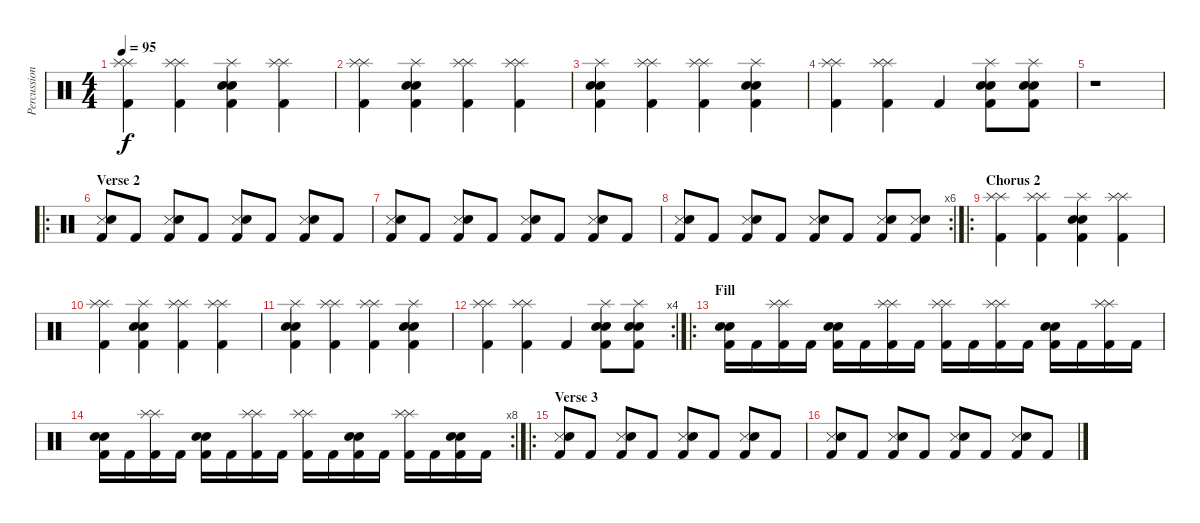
\track ("Percussion" "Percussion") {instrument percussion}
\staff {score}
\articulation defaults
\ts (4 4)
\tempo 95
\clef neutral
\ks c
("Splash (hit)" "Splash (hit)" "Kick (hit) 2").4{dy f} ("Splash (hit)" "Splash (hit)" "Kick (hit) 2").4 ("Splash (hit)" "Electric Snare (hit)" "Electric Snare (hit)" "Kick (hit) 2").4 ("Splash (hit)" "Splash (hit)" "Kick (hit) 2").4 |
("Splash (hit)" "Splash (hit)" "Kick (hit) 2").4 ("Splash (hit)" "Electric Snare (hit)" "Electric Snare (hit)" "Kick (hit) 2").4 ("Splash (hit)" "Splash (hit)" "Kick (hit) 2").4 ("Splash (hit)" "Splash (hit)" "Kick (hit) 2").4 |
("Splash (hit)" "Electric Snare (hit)" "Electric Snare (hit)" "Kick (hit) 2").4 ("Splash (hit)" "Splash (hit)" "Kick (hit) 2").4 ("Splash (hit)" "Splash (hit)" "Kick (hit) 2").4 ("Splash (hit)" "Electric Snare (hit)" "Electric Snare (hit)" "Kick (hit) 2").4 |
("Splash (hit)" "Splash (hit)" "Kick (hit) 2").4 ("Splash (hit)" "Splash (hit)" "Kick (hit) 2").4 "Kick (hit) 2".4 ("Splash (hit)" "Electric Snare (hit)" "Electric Snare (hit)" "Kick (hit) 2").8 ("Splash (hit)" "Electric Snare (hit)" "Electric Snare (hit)" "Kick (hit) 2").8 |
r.1 |
\ro
\section ("" "Verse 2")
("Metronome (hit)" "Electric Snare (hit)" "Kick (hit) 2").8 "Kick (hit) 2".8 ("Metronome (hit)" "Electric Snare (hit)" "Kick (hit) 2").8 "Kick (hit) 2".8 ("Metronome (hit)" "Electric Snare (hit)" "Kick (hit) 2").8 "Kick (hit) 2".8 ("Metronome (hit)" "Electric Snare (hit)" "Kick (hit) 2").8 "Kick (hit) 2".8 |
("Metronome (hit)" "Electric Snare (hit)" "Kick (hit) 2").8 "Kick (hit) 2".8 ("Metronome (hit)" "Electric Snare (hit)" "Kick (hit) 2").8 "Kick (hit) 2".8 ("Metronome (hit)" "Electric Snare (hit)" "Kick (hit) 2").8 "Kick (hit) 2".8 ("Metronome (hit)" "Electric Snare (hit)" "Kick (hit) 2").8 "Kick (hit) 2".8 |
\rc 6
("Metronome (hit)" "Electric Snare (hit)" "Kick (hit) 2").8 "Kick (hit) 2".8 ("Metronome (hit)" "Electric Snare (hit)" "Kick (hit) 2").8 "Kick (hit) 2".8 ("Metronome (hit)" "Electric Snare (hit)" "Kick (hit) 2").8 "Kick (hit) 2".8 ("Metronome (hit)" "Electric Snare (hit)" "Kick (hit) 2").8 ("Metronome (hit)" "Electric Snare (hit)" "Kick (hit) 2").8 |
\ro
\section ("" "Chorus 2")
("Splash (hit)" "Splash (hit)" "Kick (hit) 2").4 ("Splash (hit)" "Splash (hit)" "Kick (hit) 2").4 ("Splash (hit)" "Electric Snare (hit)" "Electric Snare (hit)" "Kick (hit) 2").4 ("Splash (hit)" "Splash (hit)" "Kick (hit) 2").4 |
("Splash (hit)" "Splash (hit)" "Kick (hit) 2").4 ("Splash (hit)" "Electric Snare (hit)" "Electric Snare (hit)" "Kick (hit) 2").4 ("Splash (hit)" "Splash (hit)" "Kick (hit) 2").4 ("Splash (hit)" "Splash (hit)" "Kick (hit) 2").4 |
("Splash (hit)" "Electric Snare (hit)" "Electric Snare (hit)" "Kick (hit) 2").4 ("Splash (hit)" "Splash (hit)" "Kick (hit) 2").4 ("Splash (hit)" "Splash (hit)" "Kick (hit) 2").4 ("Splash (hit)" "Electric Snare (hit)" "Electric Snare (hit)" "Kick (hit) 2").4 |
\rc 4
("Splash (hit)" "Splash (hit)" "Kick (hit) 2").4 ("Splash (hit)" "Splash (hit)" "Kick (hit) 2").4 "Kick (hit) 2".4 ("Splash (hit)" "Electric Snare (hit)" "Electric Snare (hit)" "Kick (hit) 2").8 ("Splash (hit)" "Electric Snare (hit)" "Electric Snare (hit)" "Kick (hit) 2").8 |
\ro
\section ("" "Fill")
("Electric Snare (hit)" "Electric Snare (hit)" "Kick (hit) 2").16 "Kick (hit) 2".16 ("Splash (hit)" "Splash (hit)" "Kick (hit) 2").16 "Kick (hit) 2".16 ("Electric Snare (hit)" "Electric Snare (hit)" "Kick (hit) 2").16 "Kick (hit) 2".16 ("Splash (hit)" "Splash (hit)" "Kick (hit) 2").16 "Kick (hit) 2".16 ("Splash (hit)" "Splash (hit)" "Kick (hit) 2").16 "Kick (hit) 2".16 ("Splash (hit)" "Splash (hit)" "Kick (hit) 2").16 "Kick (hit) 2".16 ("Electric Snare (hit)" "Electric Snare (hit)" "Kick (hit) 2").16 "Kick (hit) 2".16 ("Splash (hit)" "Splash (hit)" "Kick (hit) 2").16 "Kick (hit) 2".16 |
\rc 8
("Electric Snare (hit)" "Electric Snare (hit)" "Kick (hit) 2").16 "Kick (hit) 2".16 ("Splash (hit)" "Splash (hit)" "Kick (hit) 2").16 "Kick (hit) 2".16 ("Electric Snare (hit)" "Electric Snare (hit)" "Kick (hit) 2").16 "Kick (hit) 2".16 ("Splash (hit)" "Splash (hit)" "Kick (hit) 2").16 "Kick (hit) 2".16 ("Splash (hit)" "Splash (hit)" "Kick (hit) 2").16 "Kick (hit) 2".16 ("Electric Snare (hit)" "Electric Snare (hit)" "Kick (hit) 2").16 "Kick (hit) 2".16 ("Splash (hit)" "Splash (hit)" "Kick (hit) 2").16 "Kick (hit) 2".16 ("Electric Snare (hit)" "Electric Snare (hit)" "Kick (hit) 2").16 "Kick (hit) 2".16 |
\ro
\section ("" "Verse 3")
("Metronome (hit)" "Electric Snare (hit)" "Kick (hit) 2").8 "Kick (hit) 2".8 ("Metronome (hit)" "Electric Snare (hit)" "Kick (hit) 2").8 "Kick (hit) 2".8 ("Metronome (hit)" "Electric Snare (hit)" "Kick (hit) 2").8 "Kick (hit) 2".8 ("Metronome (hit)" "Electric Snare (hit)" "Kick (hit) 2").8 "Kick (hit) 2".8 |
("Metronome (hit)" "Electric Snare (hit)" "Kick (hit) 2").8 "Kick (hit) 2".8 ("Metronome (hit)" "Electric Snare (hit)" "Kick (hit) 2").8 "Kick (hit) 2".8 ("Metronome (hit)" "Electric Snare (hit)" "Kick (hit) 2").8 "Kick (hit) 2".8 ("Metronome (hit)" "Electric Snare (hit)" "Kick (hit) 2").8 "Kick (hit) 2".8
